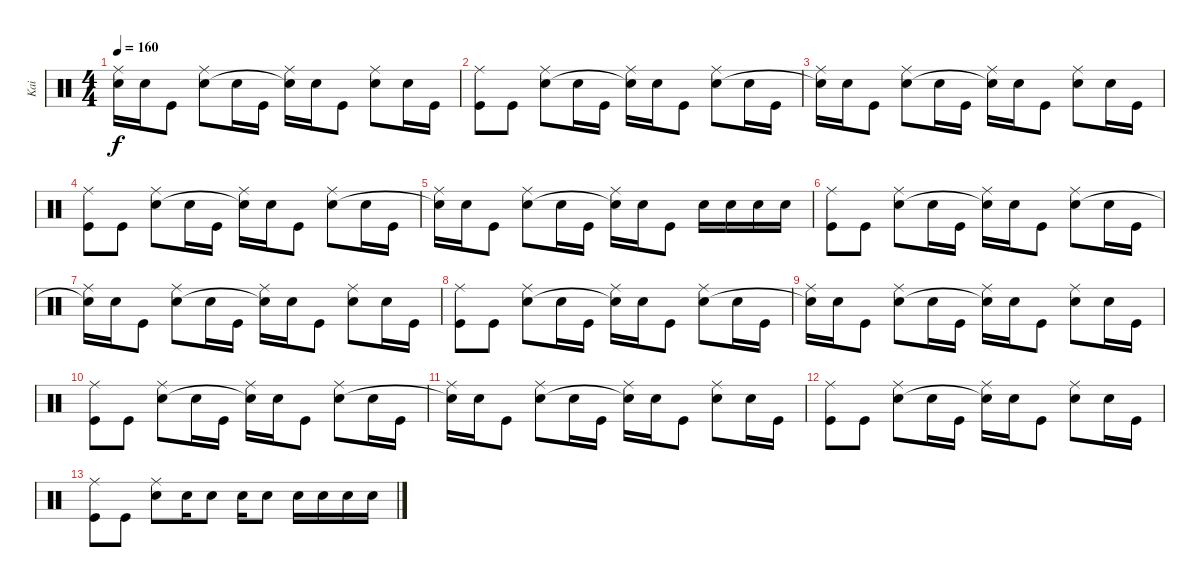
\track ("Kai" "Kai") {instrument percussion}
\staff {score}
\articulation defaults
\ts (4 4)
\tempo 160
\clef neutral
\ks c
("Ride (middle)" "Snare (hit)"{t}).16{dy f} "Snare (hit) 2".16 "Kick (hit)".8 ("Ride (middle)" "Snare (hit) 2").8 "Snare (hit) 2".16 "Kick (hit)".16 ("Ride (middle)" "Snare (hit)"{t}).16 "Snare (hit) 2".16 "Kick (hit)".8 ("Ride (middle)" "Snare (hit) 2").8 "Snare (hit) 2".16 "Kick (hit)".16 |
("Ride (middle)" "Kick (hit)").8 "Kick (hit)".8 ("Ride (middle)" "Snare (hit) 2").8 "Snare (hit) 2".16 "Kick (hit)".16 ("Ride (middle)" "Snare (hit)"{t}).16 "Snare (hit) 2".16 "Kick (hit)".8 ("Ride (middle)" "Snare (hit) 2").8 "Snare (hit) 2".16 "Kick (hit)".16 |
("Ride (middle)" "Snare (hit)"{t}).16 "Snare (hit) 2".16 "Kick (hit)".8 ("Ride (middle)" "Snare (hit) 2").8 "Snare (hit) 2".16 "Kick (hit)".16 ("Ride (middle)" "Snare (hit)"{t}).16 "Snare (hit) 2".16 "Kick (hit)".8 ("Ride (middle)" "Snare (hit) 2").8 "Snare (hit) 2".16 "Kick (hit)".16 |
("Ride (middle)" "Kick (hit)").8 "Kick (hit)".8 ("Ride (middle)" "Snare (hit) 2").8 "Snare (hit) 2".16 "Kick (hit)".16 ("Ride (middle)" "Snare (hit)"{t}).16 "Snare (hit) 2".16 "Kick (hit)".8 ("Ride (middle)" "Snare (hit) 2").8 "Snare (hit) 2".16 "Kick (hit)".16 |
("Ride (middle)" "Snare (hit)"{t}).16 "Snare (hit) 2".16 "Kick (hit)".8 ("Ride (middle)" "Snare (hit) 2").8 "Snare (hit) 2".16 "Kick (hit)".16 ("Ride (middle)" "Snare (hit)"{t}).16 "Snare (hit) 2".16 "Kick (hit)".8 "Snare (hit) 2".16 "Snare (hit) 2".16 "Snare (hit) 2".16 "Snare (hit) 2".16 |
("Ride (middle)" "Kick (hit)").8 "Kick (hit)".8 ("Ride (middle)" "Snare (hit) 2").8 "Snare (hit) 2".16 "Kick (hit)".16 ("Ride (middle)" "Snare (hit)"{t}).16 "Snare (hit) 2".16 "Kick (hit)".8 ("Ride (middle)" "Snare (hit) 2").8 "Snare (hit) 2".16 "Kick (hit)".16 |
("Ride (middle)" "Snare (hit)"{t}).16 "Snare (hit) 2".16 "Kick (hit)".8 ("Ride (middle)" "Snare (hit) 2").8 "Snare (hit) 2".16 "Kick (hit)".16 ("Ride (middle)" "Snare (hit)"{t}).16 "Snare (hit) 2".16 "Kick (hit)".8 ("Ride (middle)" "Snare (hit) 2").8 "Snare (hit) 2".16 "Kick (hit)".16 |
("Ride (middle)" "Kick (hit)").8 "Kick (hit)".8 ("Ride (middle)" "Snare (hit) 2").8 "Snare (hit) 2".16 "Kick (hit)".16 ("Ride (middle)" "Snare (hit)"{t}).16 "Snare (hit) 2".16 "Kick (hit)".8 ("Ride (middle)" "Snare (hit) 2").8 "Snare (hit) 2".16 "Kick (hit)".16 |
("Ride (middle)" "Snare (hit)"{t}).16 "Snare (hit) 2".16 "Kick (hit)".8 ("Ride (middle)" "Snare (hit) 2").8 "Snare (hit) 2".16 "Kick (hit)".16 ("Ride (middle)" "Snare (hit)"{t}).16 "Snare (hit) 2".16 "Kick (hit)".8 ("Ride (middle)" "Snare (hit) 2").8 "Snare (hit) 2".16 "Kick (hit)".16 |
("Ride (middle)" "Kick (hit)").8 "Kick (hit)".8 ("Ride (middle)" "Snare (hit) 2").8 "Snare (hit) 2".16 "Kick (hit)".16 ("Ride (middle)" "Snare (hit)"{t}).16 "Snare (hit) 2".16 "Kick (hit)".8 ("Ride (middle)" "Snare (hit) 2").8 "Snare (hit) 2".16 "Kick (hit)".16 |
("Ride (middle)" "Snare (hit)"{t}).16 "Snare (hit) 2".16 "Kick (hit)".8 ("Ride (middle)" "Snare (hit) 2").8 "Snare (hit) 2".16 "Kick (hit)".16 ("Ride (middle)" "Snare (hit)"{t}).16 "Snare (hit) 2".16 "Kick (hit)".8 ("Ride (middle)" "Snare (hit) 2").8 "Snare (hit) 2".16 "Kick (hit)".16 |
("Ride (middle)" "Kick (hit)").8 "Kick (hit)".8 ("Ride (middle)" "Snare (hit) 2").8 "Snare (hit) 2".16 "Kick (hit)".16 ("Ride (middle)" "Snare (hit)"{t}).16 "Snare (hit) 2".16 "Kick (hit)".8 ("Ride (middle)" "Snare (hit) 2").8 "Snare (hit) 2".16 "Kick (hit)".16 |
("Ride (middle)" "Kick (hit)").8 "Kick (hit)".8 ("Ride (middle)" "Snare (hit) 2").8 "Snare (hit) 2".16 "Snare (hit) 2".8 "Snare (hit) 2".16 "Snare (hit) 2".8 "Snare (hit) 2".16 "Snare (hit) 2".16 "Snare (hit) 2".16 "Snare (hit) 2".16
